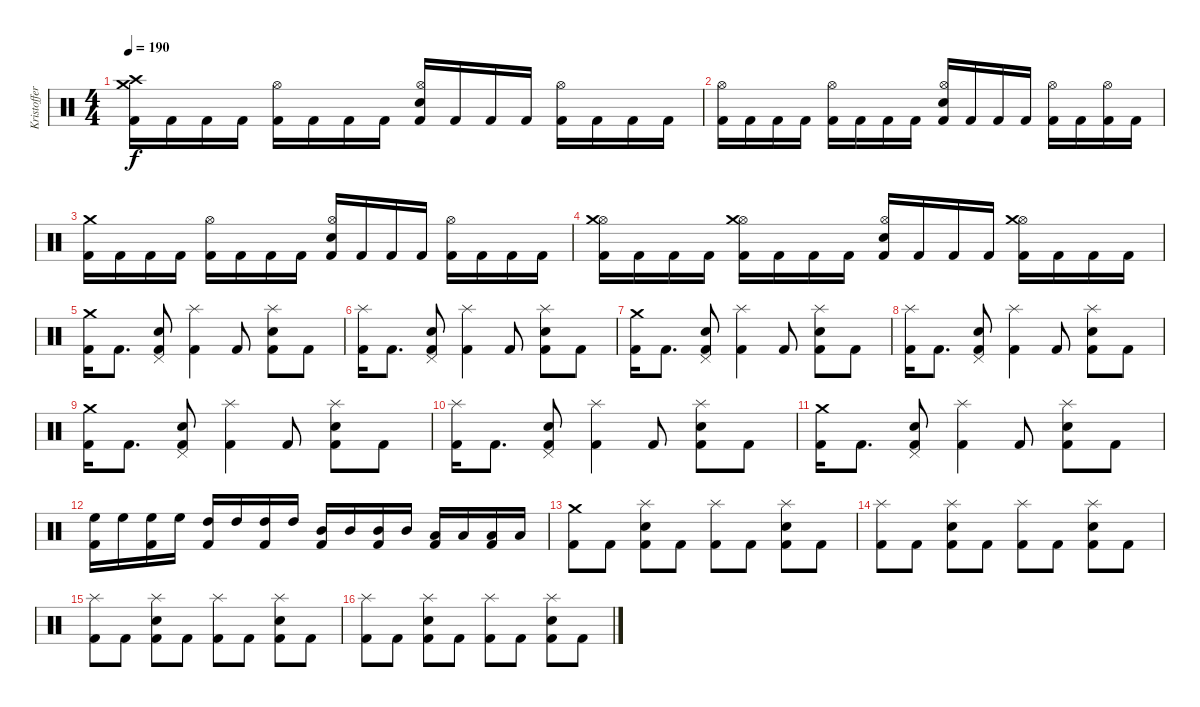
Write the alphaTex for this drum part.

\track ("Kristoffer (Drums)" "Kristoffer") {instrument percussion}
\staff {score}
\articulation defaults
\ts (4 4)
\tempo 190
\clef neutral
\ks c
("Kick (hit) 2" "Crash medium (hit)" "Crash high (hit)").16{dy f} "Kick (hit) 2".16 "Kick (hit) 2".16 "Kick (hit) 2".16 ("Kick (hit) 2" "Hi-Hat (open)").16 "Kick (hit) 2".16 "Kick (hit) 2".16 "Kick (hit) 2".16 ("Kick (hit) 2" "Electric Snare (hit)" "Hi-Hat (open)").16 "Kick (hit) 2".16 "Kick (hit) 2".16 "Kick (hit) 2".16 ("Kick (hit) 2" "Hi-Hat (open)").16 "Kick (hit) 2".16 "Kick (hit) 2".16 "Kick (hit) 2".16 |
("Kick (hit) 2" "Hi-Hat (open)").16 "Kick (hit) 2".16 "Kick (hit) 2".16 "Kick (hit) 2".16 ("Kick (hit) 2" "Hi-Hat (open)").16 "Kick (hit) 2".16 "Kick (hit) 2".16 "Kick (hit) 2".16 ("Kick (hit) 2" "Electric Snare (hit)" "Hi-Hat (open)").16 "Kick (hit) 2".16 "Kick (hit) 2".16 "Kick (hit) 2".16 ("Kick (hit) 2" "Hi-Hat (open)").16 "Kick (hit) 2".16 ("Kick (hit) 2" "Hi-Hat (open)").16 "Kick (hit) 2".16 |
("Kick (hit) 2" "Crash medium (hit)").16 "Kick (hit) 2".16 "Kick (hit) 2".16 "Kick (hit) 2".16 ("Kick (hit) 2" "Hi-Hat (open)").16 "Kick (hit) 2".16 "Kick (hit) 2".16 "Kick (hit) 2".16 ("Kick (hit) 2" "Electric Snare (hit)" "Hi-Hat (open)").16 "Kick (hit) 2".16 "Kick (hit) 2".16 "Kick (hit) 2".16 ("Kick (hit) 2" "Hi-Hat (open)").16 "Kick (hit) 2".16 "Kick (hit) 2".16 "Kick (hit) 2".16 |
("Kick (hit) 2" "Hi-Hat (open)" "Crash medium (hit)").16 "Kick (hit) 2".16 "Kick (hit) 2".16 "Kick (hit) 2".16 ("Kick (hit) 2" "Hi-Hat (open)" "Crash medium (hit)").16 "Kick (hit) 2".16 "Kick (hit) 2".16 "Kick (hit) 2".16 ("Kick (hit) 2" "Electric Snare (hit)" "Hi-Hat (open)").16 "Kick (hit) 2".16 "Kick (hit) 2".16 "Kick (hit) 2".16 ("Kick (hit) 2" "Hi-Hat (open)" "Crash medium (hit)").16 "Kick (hit) 2".16 "Kick (hit) 2".16 "Kick (hit) 2".16 |
("Kick (hit) 2" "Crash medium (hit)").16 "Kick (hit) 2".8{d} ("Kick (hit) 2" "Electric Snare (hit)" "Pedal Hi-Hat (hit)").8 ("Kick (hit) 2" "Splash (hit)").4 "Kick (hit) 2".8 ("Kick (hit) 2" "Electric Snare (hit)" "Splash (hit)").8 "Kick (hit) 2".8 |
("Kick (hit) 2" "Splash (hit)").16 "Kick (hit) 2".8{d} ("Kick (hit) 2" "Electric Snare (hit)" "Pedal Hi-Hat (hit)").8 ("Kick (hit) 2" "Splash (hit)").4 "Kick (hit) 2".8 ("Kick (hit) 2" "Electric Snare (hit)" "Splash (hit)").8 "Kick (hit) 2".8 |
("Kick (hit) 2" "Crash medium (hit)").16 "Kick (hit) 2".8{d} ("Kick (hit) 2" "Electric Snare (hit)" "Pedal Hi-Hat (hit)").8 ("Kick (hit) 2" "Splash (hit)").4 "Kick (hit) 2".8 ("Kick (hit) 2" "Electric Snare (hit)" "Splash (hit)").8 "Kick (hit) 2".8 |
("Kick (hit) 2" "Splash (hit)").16 "Kick (hit) 2".8{d} ("Kick (hit) 2" "Electric Snare (hit)" "Pedal Hi-Hat (hit)").8 ("Kick (hit) 2" "Splash (hit)").4 "Kick (hit) 2".8 ("Kick (hit) 2" "Electric Snare (hit)" "Splash (hit)").8 "Kick (hit) 2".8 |
("Kick (hit) 2" "Crash medium (hit)").16 "Kick (hit) 2".8{d} ("Kick (hit) 2" "Electric Snare (hit)" "Pedal Hi-Hat (hit)").8 ("Kick (hit) 2" "Splash (hit)").4 "Kick (hit) 2".8 ("Kick (hit) 2" "Electric Snare (hit)" "Splash (hit)").8 "Kick (hit) 2".8 |
("Kick (hit) 2" "Splash (hit)").16 "Kick (hit) 2".8{d} ("Kick (hit) 2" "Electric Snare (hit)" "Pedal Hi-Hat (hit)").8 ("Kick (hit) 2" "Splash (hit)").4 "Kick (hit) 2".8 ("Kick (hit) 2" "Electric Snare (hit)" "Splash (hit)").8 "Kick (hit) 2".8 |
("Kick (hit) 2" "Crash medium (hit)").16 "Kick (hit) 2".8{d} ("Kick (hit) 2" "Electric Snare (hit)" "Pedal Hi-Hat (hit)").8 ("Kick (hit) 2" "Splash (hit)").4 "Kick (hit) 2".8 ("Kick (hit) 2" "Electric Snare (hit)" "Splash (hit)").8 "Kick (hit) 2".8 |
("Kick (hit) 2" "High Floor Tom (hit)").16 "High Floor Tom (hit)".16 ("Kick (hit) 2" "High Floor Tom (hit)").16 "High Floor Tom (hit)".16 ("Kick (hit) 2" "High Tom (hit)").16 "High Tom (hit)".16 ("Kick (hit) 2" "High Tom (hit)").16 "High Tom (hit)".16 ("Kick (hit) 2" "Mid Tom (hit)").16 "Mid Tom (hit)".16 ("Kick (hit) 2" "Mid Tom (hit)").16 "Mid Tom (hit)".16 ("Kick (hit) 2" "Low Tom (hit)").16 "Low Tom (hit)".16 ("Kick (hit) 2" "Low Tom (hit)").16 "Low Tom (hit)".16 |
("Kick (hit) 2" "Crash medium (hit)").8 "Kick (hit) 2".8 ("Kick (hit) 2" "Electric Snare (hit)" "Splash (hit)").8 "Kick (hit) 2".8 ("Kick (hit) 2" "Splash (hit)").8 "Kick (hit) 2".8 ("Kick (hit) 2" "Electric Snare (hit)" "Splash (hit)").8 "Kick (hit) 2".8 |
("Kick (hit) 2" "Splash (hit)").8 "Kick (hit) 2".8 ("Kick (hit) 2" "Electric Snare (hit)" "Splash (hit)").8 "Kick (hit) 2".8 ("Kick (hit) 2" "Splash (hit)").8 "Kick (hit) 2".8 ("Kick (hit) 2" "Electric Snare (hit)" "Splash (hit)").8 "Kick (hit) 2".8 |
("Kick (hit) 2" "Splash (hit)").8 "Kick (hit) 2".8 ("Kick (hit) 2" "Electric Snare (hit)" "Splash (hit)").8 "Kick (hit) 2".8 ("Kick (hit) 2" "Splash (hit)").8 "Kick (hit) 2".8 ("Kick (hit) 2" "Electric Snare (hit)" "Splash (hit)").8 "Kick (hit) 2".8 |
("Kick (hit) 2" "Splash (hit)").8 "Kick (hit) 2".8 ("Kick (hit) 2" "Electric Snare (hit)" "Splash (hit)").8 "Kick (hit) 2".8 ("Kick (hit) 2" "Splash (hit)").8 "Kick (hit) 2".8 ("Kick (hit) 2" "Electric Snare (hit)" "Splash (hit)").8 "Kick (hit) 2".8
